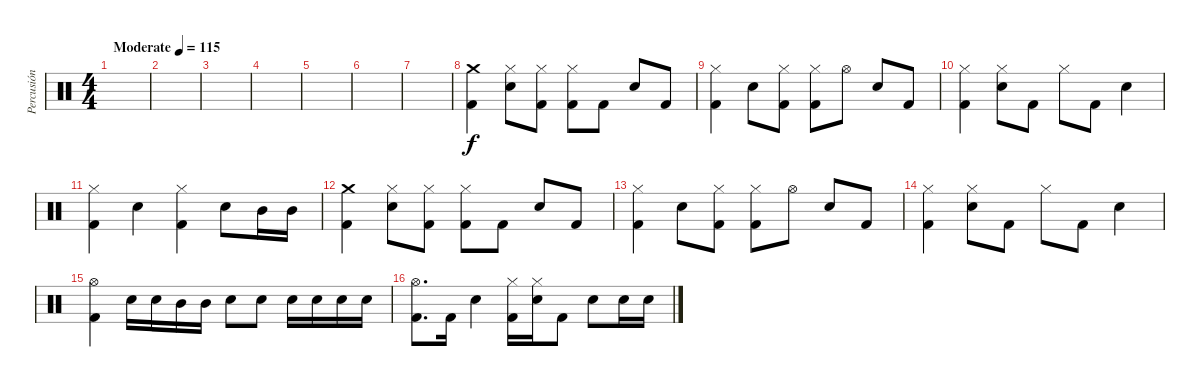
\track ("Percusión" "Percusión") {instrument percussion}
\staff {score}
\articulation defaults
\ts (4 4)
\tempo (115 "Moderate")
\clef neutral
\ks c
|
|
|
|
|
|
|
("Crash medium (hit)" "Kick (hit) 2").4 ("Hi-Hat (closed)" "Electric Snare (hit)").8 ("Hi-Hat (closed)" "Kick (hit) 2").8 ("Hi-Hat (closed)" "Kick (hit) 2").8 "Kick (hit) 2".8 "Electric Snare (hit)".8 "Kick (hit) 2".8 |
("Hi-Hat (closed)" "Kick (hit) 2").4 "Electric Snare (hit)".8 ("Hi-Hat (closed)" "Kick (hit) 2").8 ("Hi-Hat (closed)" "Kick (hit) 2").8 "Hi-Hat (open)".8 "Electric Snare (hit)".8 "Kick (hit) 2".8 |
("Hi-Hat (closed)" "Kick (hit) 2").4 ("Hi-Hat (closed)" "Electric Snare (hit)").8 "Kick (hit) 2".8 "Hi-Hat (closed)".8 "Kick (hit) 2".8 "Electric Snare (hit)".4 |
("Hi-Hat (closed)" "Kick (hit) 2").4 "Electric Snare (hit)".4 ("Hi-Hat (closed)" "Kick (hit) 2").4 "Electric Snare (hit)".8 "Mid Tom (hit)".16 "Mid Tom (hit)".16 |
("Crash medium (hit)" "Kick (hit) 2").4 ("Hi-Hat (closed)" "Electric Snare (hit)").8 ("Hi-Hat (closed)" "Kick (hit) 2").8 ("Hi-Hat (closed)" "Kick (hit) 2").8 "Kick (hit) 2".8 "Electric Snare (hit)".8 "Kick (hit) 2".8 |
("Hi-Hat (closed)" "Kick (hit) 2").4 "Electric Snare (hit)".8 ("Hi-Hat (closed)" "Kick (hit) 2").8 ("Hi-Hat (closed)" "Kick (hit) 2").8 "Hi-Hat (open)".8 "Electric Snare (hit)".8 "Kick (hit) 2".8 |
("Hi-Hat (closed)" "Kick (hit) 2").4 ("Hi-Hat (closed)" "Electric Snare (hit)").8 "Kick (hit) 2".8 "Hi-Hat (closed)".8 "Kick (hit) 2".8 "Electric Snare (hit)".4 |
("Hi-Hat (open)" "Kick (hit) 2").4 "Electric Snare (hit)".16 "Electric Snare (hit)".16 "Mid Tom (hit)".16 "Mid Tom (hit)".16 "Electric Snare (hit)".8 "Electric Snare (hit)".8 "Electric Snare (hit)".16 "Electric Snare (hit)".16 "Electric Snare (hit)".16 "Electric Snare (hit)".16 |
("Hi-Hat (open)" "Kick (hit) 2").8{d} "Kick (hit) 2".16 "Electric Snare (hit)".4 ("Hi-Hat (closed)" "Kick (hit) 2").16 ("Hi-Hat (closed)" "Electric Snare (hit)").16 "Kick (hit) 2".8 "Electric Snare (hit)".8 "Electric Snare (hit)".16 "Electric Snare (hit)".16
